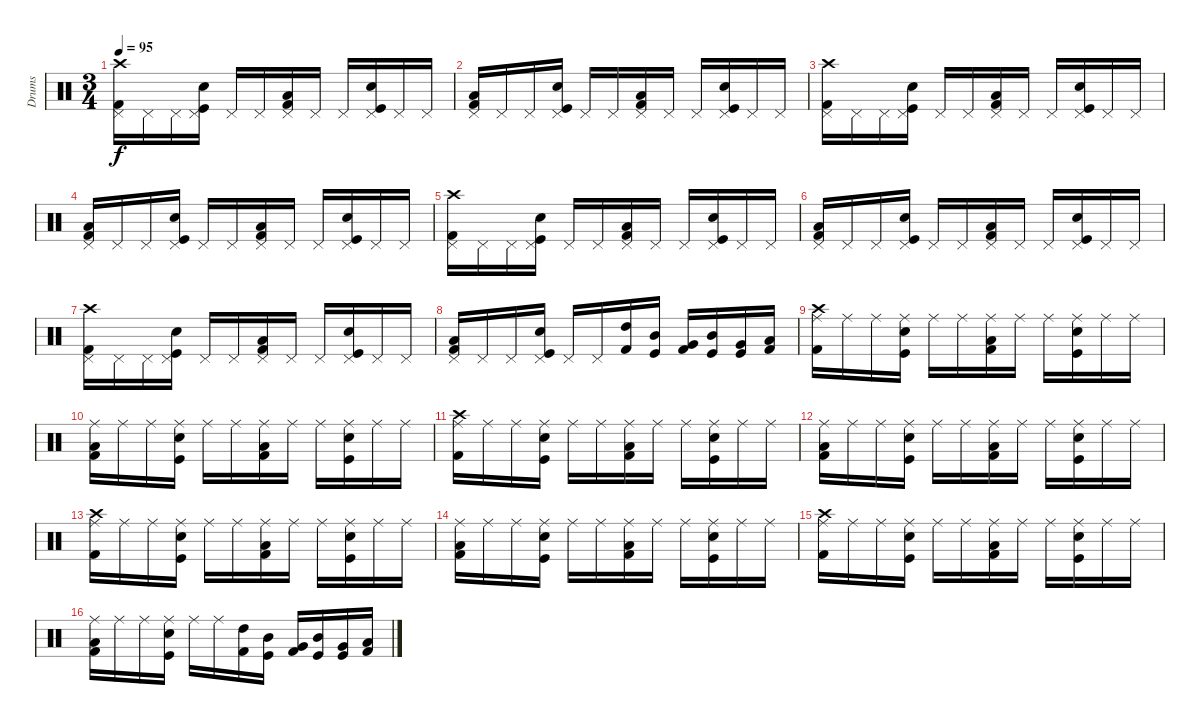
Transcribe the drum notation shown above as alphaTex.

\track ("Drums" "Drums") {instrument percussion}
\staff {score}
\articulation defaults
\ts (3 4)
\tempo 95
\clef neutral
\ks c
("Crash high (hit)" "Pedal Hi-Hat (hit)" "Kick (hit) 2").16{dy f} "Pedal Hi-Hat (hit)".16 "Pedal Hi-Hat (hit)".16 ("Electric Snare (hit)" "Pedal Hi-Hat (hit)" "Kick (hit)").16 "Pedal Hi-Hat (hit)".16 "Pedal Hi-Hat (hit)".16 ("Low Floor Tom (hit)" "Pedal Hi-Hat (hit)" "Kick (hit) 2").16 "Pedal Hi-Hat (hit)".16 "Pedal Hi-Hat (hit)".16 ("Electric Snare (hit)" "Pedal Hi-Hat (hit)" "Kick (hit)").16 "Pedal Hi-Hat (hit)".16 "Pedal Hi-Hat (hit)".16 |
("Low Floor Tom (hit)" "Pedal Hi-Hat (hit)" "Kick (hit) 2").16 "Pedal Hi-Hat (hit)".16 "Pedal Hi-Hat (hit)".16 ("Electric Snare (hit)" "Pedal Hi-Hat (hit)" "Kick (hit)").16 "Pedal Hi-Hat (hit)".16 "Pedal Hi-Hat (hit)".16 ("Low Floor Tom (hit)" "Pedal Hi-Hat (hit)" "Kick (hit) 2").16 "Pedal Hi-Hat (hit)".16 "Pedal Hi-Hat (hit)".16 ("Electric Snare (hit)" "Pedal Hi-Hat (hit)" "Kick (hit)").16 "Pedal Hi-Hat (hit)".16 "Pedal Hi-Hat (hit)".16 |
("Crash high (hit)" "Pedal Hi-Hat (hit)" "Kick (hit) 2").16 "Pedal Hi-Hat (hit)".16 "Pedal Hi-Hat (hit)".16 ("Electric Snare (hit)" "Pedal Hi-Hat (hit)" "Kick (hit)").16 "Pedal Hi-Hat (hit)".16 "Pedal Hi-Hat (hit)".16 ("Low Floor Tom (hit)" "Pedal Hi-Hat (hit)" "Kick (hit) 2").16 "Pedal Hi-Hat (hit)".16 "Pedal Hi-Hat (hit)".16 ("Electric Snare (hit)" "Pedal Hi-Hat (hit)" "Kick (hit)").16 "Pedal Hi-Hat (hit)".16 "Pedal Hi-Hat (hit)".16 |
("Low Floor Tom (hit)" "Pedal Hi-Hat (hit)" "Kick (hit) 2").16 "Pedal Hi-Hat (hit)".16 "Pedal Hi-Hat (hit)".16 ("Electric Snare (hit)" "Pedal Hi-Hat (hit)" "Kick (hit)").16 "Pedal Hi-Hat (hit)".16 "Pedal Hi-Hat (hit)".16 ("Low Floor Tom (hit)" "Pedal Hi-Hat (hit)" "Kick (hit) 2").16 "Pedal Hi-Hat (hit)".16 "Pedal Hi-Hat (hit)".16 ("Electric Snare (hit)" "Pedal Hi-Hat (hit)" "Kick (hit)").16 "Pedal Hi-Hat (hit)".16 "Pedal Hi-Hat (hit)".16 |
("Crash high (hit)" "Pedal Hi-Hat (hit)" "Kick (hit) 2").16 "Pedal Hi-Hat (hit)".16 "Pedal Hi-Hat (hit)".16 ("Electric Snare (hit)" "Pedal Hi-Hat (hit)" "Kick (hit)").16 "Pedal Hi-Hat (hit)".16 "Pedal Hi-Hat (hit)".16 ("Low Floor Tom (hit)" "Pedal Hi-Hat (hit)" "Kick (hit) 2").16 "Pedal Hi-Hat (hit)".16 "Pedal Hi-Hat (hit)".16 ("Electric Snare (hit)" "Pedal Hi-Hat (hit)" "Kick (hit)").16 "Pedal Hi-Hat (hit)".16 "Pedal Hi-Hat (hit)".16 |
("Low Floor Tom (hit)" "Pedal Hi-Hat (hit)" "Kick (hit) 2").16 "Pedal Hi-Hat (hit)".16 "Pedal Hi-Hat (hit)".16 ("Electric Snare (hit)" "Pedal Hi-Hat (hit)" "Kick (hit)").16 "Pedal Hi-Hat (hit)".16 "Pedal Hi-Hat (hit)".16 ("Low Floor Tom (hit)" "Pedal Hi-Hat (hit)" "Kick (hit) 2").16 "Pedal Hi-Hat (hit)".16 "Pedal Hi-Hat (hit)".16 ("Electric Snare (hit)" "Pedal Hi-Hat (hit)" "Kick (hit)").16 "Pedal Hi-Hat (hit)".16 "Pedal Hi-Hat (hit)".16 |
("Crash high (hit)" "Pedal Hi-Hat (hit)" "Kick (hit) 2").16 "Pedal Hi-Hat (hit)".16 "Pedal Hi-Hat (hit)".16 ("Electric Snare (hit)" "Pedal Hi-Hat (hit)" "Kick (hit)").16 "Pedal Hi-Hat (hit)".16 "Pedal Hi-Hat (hit)".16 ("Low Floor Tom (hit)" "Pedal Hi-Hat (hit)" "Kick (hit) 2").16 "Pedal Hi-Hat (hit)".16 "Pedal Hi-Hat (hit)".16 ("Electric Snare (hit)" "Pedal Hi-Hat (hit)" "Kick (hit)").16 "Pedal Hi-Hat (hit)".16 "Pedal Hi-Hat (hit)".16 |
("Low Floor Tom (hit)" "Pedal Hi-Hat (hit)" "Kick (hit) 2").16 "Pedal Hi-Hat (hit)".16 "Pedal Hi-Hat (hit)".16 ("Electric Snare (hit)" "Pedal Hi-Hat (hit)" "Kick (hit)").16 "Pedal Hi-Hat (hit)".16 "Pedal Hi-Hat (hit)".16 ("High Tom (hit)" "Kick (hit) 2").16 ("Mid Tom (hit)" "Kick (hit)").16 ("Very Low Tom (hit)" "Kick (hit) 2").16 ("Mid Tom (hit)" "Kick (hit)").16 ("Very Low Tom (hit)" "Kick (hit)").16 ("Low Floor Tom (hit)" "Kick (hit) 2").16 |
("Crash high (hit)" "Ride (middle)" "Kick (hit) 2").16 "Ride (middle)".16 "Ride (middle)".16 ("Electric Snare (hit)" "Ride (middle)" "Kick (hit)").16 "Ride (middle)".16 "Ride (middle)".16 ("Low Floor Tom (hit)" "Ride (middle)" "Kick (hit) 2").16 "Ride (middle)".16 "Ride (middle)".16 ("Electric Snare (hit)" "Ride (middle)" "Kick (hit)").16 "Ride (middle)".16 "Ride (middle)".16 |
("Low Floor Tom (hit)" "Ride (middle)" "Kick (hit) 2").16 "Ride (middle)".16 "Ride (middle)".16 ("Electric Snare (hit)" "Ride (middle)" "Kick (hit)").16 "Ride (middle)".16 "Ride (middle)".16 ("Low Floor Tom (hit)" "Ride (middle)" "Kick (hit) 2").16 "Ride (middle)".16 "Ride (middle)".16 ("Electric Snare (hit)" "Ride (middle)" "Kick (hit)").16 "Ride (middle)".16 "Ride (middle)".16 |
("Crash high (hit)" "Ride (middle)" "Kick (hit) 2").16 "Ride (middle)".16 "Ride (middle)".16 ("Electric Snare (hit)" "Ride (middle)" "Kick (hit)").16 "Ride (middle)".16 "Ride (middle)".16 ("Low Floor Tom (hit)" "Ride (middle)" "Kick (hit) 2").16 "Ride (middle)".16 "Ride (middle)".16 ("Electric Snare (hit)" "Ride (middle)" "Kick (hit)").16 "Ride (middle)".16 "Ride (middle)".16 |
("Low Floor Tom (hit)" "Ride (middle)" "Kick (hit) 2").16 "Ride (middle)".16 "Ride (middle)".16 ("Electric Snare (hit)" "Ride (middle)" "Kick (hit)").16 "Ride (middle)".16 "Ride (middle)".16 ("Low Floor Tom (hit)" "Ride (middle)" "Kick (hit) 2").16 "Ride (middle)".16 "Ride (middle)".16 ("Electric Snare (hit)" "Ride (middle)" "Kick (hit)").16 "Ride (middle)".16 "Ride (middle)".16 |
("Crash high (hit)" "Ride (middle)" "Kick (hit) 2").16 "Ride (middle)".16 "Ride (middle)".16 ("Electric Snare (hit)" "Ride (middle)" "Kick (hit)").16 "Ride (middle)".16 "Ride (middle)".16 ("Low Floor Tom (hit)" "Ride (middle)" "Kick (hit) 2").16 "Ride (middle)".16 "Ride (middle)".16 ("Electric Snare (hit)" "Ride (middle)" "Kick (hit)").16 "Ride (middle)".16 "Ride (middle)".16 |
("Low Floor Tom (hit)" "Ride (middle)" "Kick (hit) 2").16 "Ride (middle)".16 "Ride (middle)".16 ("Electric Snare (hit)" "Ride (middle)" "Kick (hit)").16 "Ride (middle)".16 "Ride (middle)".16 ("Low Floor Tom (hit)" "Ride (middle)" "Kick (hit) 2").16 "Ride (middle)".16 "Ride (middle)".16 ("Electric Snare (hit)" "Ride (middle)" "Kick (hit)").16 "Ride (middle)".16 "Ride (middle)".16 |
("Crash high (hit)" "Ride (middle)" "Kick (hit) 2").16 "Ride (middle)".16 "Ride (middle)".16 ("Electric Snare (hit)" "Ride (middle)" "Kick (hit)").16 "Ride (middle)".16 "Ride (middle)".16 ("Low Floor Tom (hit)" "Ride (middle)" "Kick (hit) 2").16 "Ride (middle)".16 "Ride (middle)".16 ("Electric Snare (hit)" "Ride (middle)" "Kick (hit)").16 "Ride (middle)".16 "Ride (middle)".16 |
("Low Floor Tom (hit)" "Ride (middle)" "Kick (hit) 2").16 "Ride (middle)".16 "Ride (middle)".16 ("Electric Snare (hit)" "Ride (middle)" "Kick (hit)").16 "Ride (middle)".16 "Ride (middle)".16 ("High Tom (hit)" "Kick (hit) 2").16 ("Mid Tom (hit)" "Kick (hit)").16 ("Very Low Tom (hit)" "Kick (hit) 2").16 ("Mid Tom (hit)" "Kick (hit)").16 ("Very Low Tom (hit)" "Kick (hit)").16 ("Low Floor Tom (hit)" "Kick (hit) 2").16
